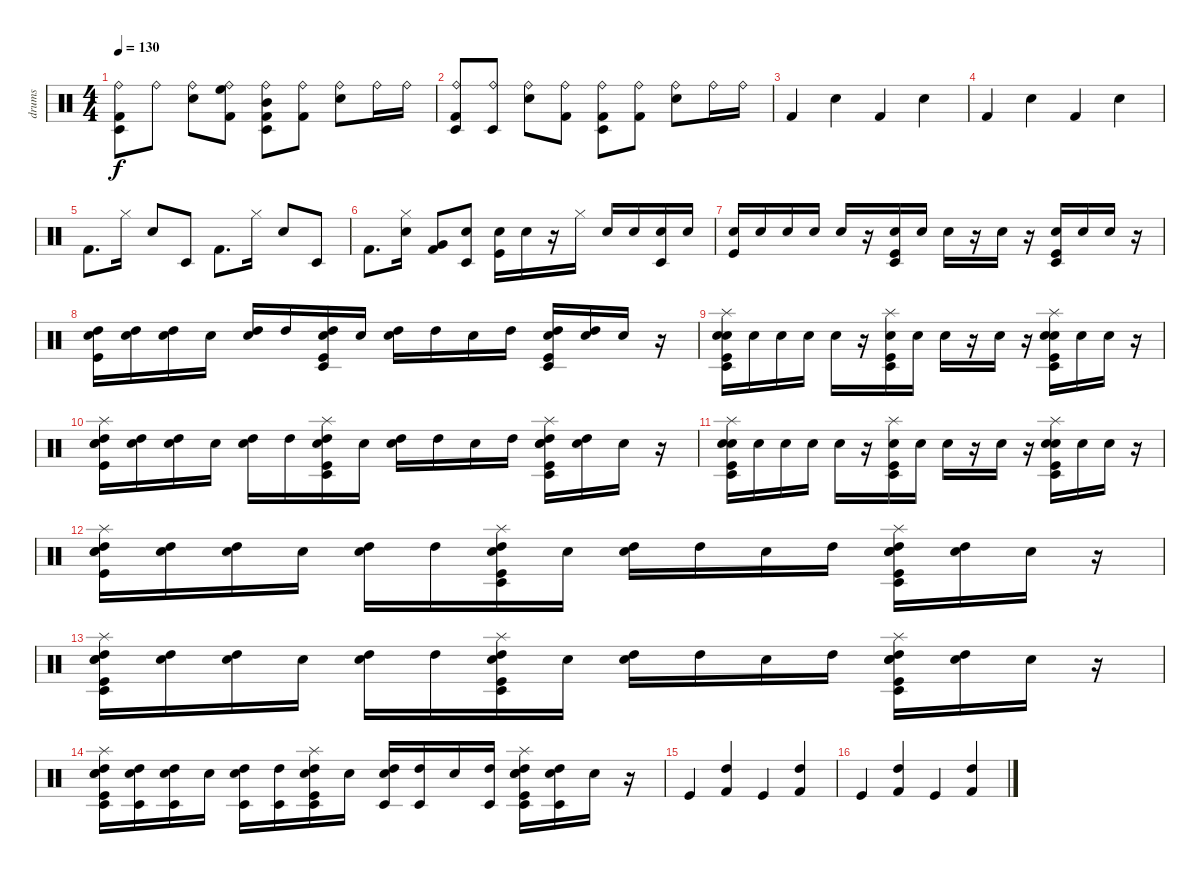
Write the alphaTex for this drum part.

\track ("drums" "drums") {instrument percussion}
\staff {score}
\articulation defaults
\ts (4 4)
\tempo 130
\clef neutral
\ks c
("Kick (hit) 2" "Timbale low (hit)" "Ride (bell)").8{dy f} "Ride (bell)".8 ("Electric Snare (hit)" "Ride (bell)").8 ("Ride (bell)" "High Floor Tom (hit)" "Kick (hit) 2").8 ("Ride (bell)" "Timbale low (hit)" "Mid Tom (hit)" "Kick (hit) 2").8 ("Kick (hit) 2" "Ride (bell)").8 ("Ride (bell)" "Electric Snare (hit)").8 "Ride (bell)".16 "Ride (bell)".16 |
("Kick (hit) 2" "Timbale low (hit)" "Ride (bell)").8 ("Timbale low (hit)" "Ride (bell)").8 ("Electric Snare (hit)" "Ride (bell)").8 ("Kick (hit) 2" "Ride (bell)").8 ("Kick (hit) 2" "Ride (bell)" "Timbale low (hit)").8 ("Kick (hit) 2" "Ride (bell)").8 ("Electric Snare (hit)" "Ride (bell)").8 "Ride (bell)".16 "Ride (bell)".16 |
"Kick (hit) 2".4 "Snare (hit) 2".4 "Kick (hit) 2".4 "Snare (hit) 2".4 |
"Kick (hit) 2".4 "Snare (hit) 2".4 "Kick (hit) 2".4 "Snare (hit) 2".4 |
"Kick (hit) 2".8{d} "Hi-Hat (closed)".16 "Snare (hit) 2".8 "Timbale low (hit)".8 "Kick (hit) 2".8{d} "Hi-Hat (closed)".16 "Snare (hit) 2".8 "Timbale low (hit)".8 |
"Kick (hit) 2".8{d} ("Hi-Hat (closed)" "Electric Snare (hit)").16 ("Very Low Tom (hit)" "Kick (hit) 2").8 ("Timbale low (hit)" "Electric Snare (hit)").8 ("Electric Snare (hit)" "Kick (hit)").16 "Electric Snare (hit)".16 r.16 "Hi-Hat (closed)".16 "Electric Snare (hit)".16 "Electric Snare (hit)".16 ("Timbale low (hit)" "Electric Snare (hit)").16 "Electric Snare (hit)".16 |
("Snare (hit) 2" "Kick (hit)").16 "Snare (hit) 2".16 "Snare (hit) 2".16 "Snare (hit) 2".16 "Snare (hit) 2".16 r.16 ("Snare (hit) 2" "Kick (hit)" "Timbale low (hit)").16 "Snare (hit) 2".16 "Snare (hit) 2".16 r.16 "Snare (hit) 2".16 r.16 ("Timbale low (hit)" "Kick (hit)" "Snare (hit) 2").16 "Snare (hit) 2".16 "Snare (hit) 2".16 r.16 |
("Kick (hit)" "Snare (hit) 2" "High Tom (hit)").16 ("High Tom (hit)" "Snare (hit) 2").16 ("High Tom (hit)" "Snare (hit) 2").16 "Snare (hit) 2".16 ("High Tom (hit)" "Snare (hit) 2").16 "High Tom (hit)".16 ("High Tom (hit)" "Timbale low (hit)" "Kick (hit)" "Snare (hit) 2").16 "Snare (hit) 2".16 ("High Tom (hit)" "Snare (hit) 2").16 "High Tom (hit)".16 "Snare (hit) 2".16 "High Tom (hit)".16 ("Timbale low (hit)" "High Tom (hit)" "Snare (hit) 2" "Kick (hit)").16 ("Snare (hit) 2" "High Tom (hit)").16 "Snare (hit) 2".16 r.16 |
("Timbale low (hit)" "Electric Snare (hit)" "Splash (hit)" "Snare (hit) 2" "Kick (hit)").16 "Snare (hit) 2".16 "Snare (hit) 2".16 "Snare (hit) 2".16 "Snare (hit) 2".16 r.16 ("Snare (hit) 2" "Splash (hit)" "Timbale low (hit)" "Kick (hit)").16 "Snare (hit) 2".16 "Snare (hit) 2".16 r.16 "Snare (hit) 2".16 r.16 ("Electric Snare (hit)" "Splash (hit)" "Timbale low (hit)" "Kick (hit)" "Snare (hit) 2").16 "Snare (hit) 2".16 "Snare (hit) 2".16 r.16 |
("Snare (hit) 2" "Electric Snare (hit)" "Splash (hit)" "Kick (hit)" "High Tom (hit)").16 ("Snare (hit) 2" "High Tom (hit)").16 ("High Tom (hit)" "Snare (hit) 2").16 "Snare (hit) 2".16 ("High Tom (hit)" "Snare (hit) 2").16 "High Tom (hit)".16 ("Splash (hit)" "Timbale low (hit)" "High Tom (hit)" "Kick (hit)" "Snare (hit) 2").16 "Snare (hit) 2".16 ("Snare (hit) 2" "High Tom (hit)").16 "High Tom (hit)".16 "Snare (hit) 2".16 "High Tom (hit)".16 ("Timbale low (hit)" "Electric Snare (hit)" "Splash (hit)" "Kick (hit)" "High Tom (hit)" "Snare (hit) 2").16 ("High Tom (hit)" "Snare (hit) 2").16 "Snare (hit) 2".16 r.16 |
("Splash (hit)" "Timbale low (hit)" "Snare (hit) 2" "Electric Snare (hit)" "Kick (hit)").16 "Snare (hit) 2".16 "Snare (hit) 2".16 "Snare (hit) 2".16 "Snare (hit) 2".16 r.16 ("Splash (hit)" "Snare (hit) 2" "Kick (hit)" "Timbale low (hit)").16 "Snare (hit) 2".16 "Snare (hit) 2".16 r.16 "Snare (hit) 2".16 r.16 ("Electric Snare (hit)" "Splash (hit)" "Snare (hit) 2" "Kick (hit)" "Timbale low (hit)").16 "Snare (hit) 2".16 "Snare (hit) 2".16 r.16 |
("Electric Snare (hit)" "High Tom (hit)" "Snare (hit) 2" "Kick (hit)" "Splash (hit)").16 ("Snare (hit) 2" "High Tom (hit)").16 ("High Tom (hit)" "Snare (hit) 2").16 "Snare (hit) 2".16 ("Snare (hit) 2" "High Tom (hit)").16 "High Tom (hit)".16 ("Splash (hit)" "Kick (hit)" "Timbale low (hit)" "High Tom (hit)" "Snare (hit) 2").16 "Snare (hit) 2".16 ("Snare (hit) 2" "High Tom (hit)").16 "High Tom (hit)".16 "Snare (hit) 2".16 "High Tom (hit)".16 ("Electric Snare (hit)" "Splash (hit)" "High Tom (hit)" "Timbale low (hit)" "Kick (hit)" "Snare (hit) 2").16 ("High Tom (hit)" "Snare (hit) 2").16 "Snare (hit) 2".16 r.16 |
("High Tom (hit)" "Kick (hit)" "Electric Snare (hit)" "Splash (hit)" "Timbale low (hit)" "Snare (hit) 2").16 ("Snare (hit) 2" "High Tom (hit)").16 ("Snare (hit) 2" "High Tom (hit)").16 "Snare (hit) 2".16 ("High Tom (hit)" "Snare (hit) 2").16 "High Tom (hit)".16 ("Timbale low (hit)" "Kick (hit)" "Snare (hit) 2" "Splash (hit)" "High Tom (hit)").16 "Snare (hit) 2".16 ("High Tom (hit)" "Snare (hit) 2").16 "High Tom (hit)".16 "Snare (hit) 2".16 "High Tom (hit)".16 ("Splash (hit)" "Snare (hit) 2" "High Tom (hit)" "Electric Snare (hit)" "Kick (hit)" "Timbale low (hit)").16 ("Snare (hit) 2" "High Tom (hit)").16 "Snare (hit) 2".16 r.16 |
("Kick (hit)" "Splash (hit)" "Snare (hit) 2" "High Tom (hit)" "Electric Snare (hit)" "Timbale low (hit)").16 ("Snare (hit) 2" "Timbale low (hit)" "High Tom (hit)").16 ("Timbale low (hit)" "High Tom (hit)" "Snare (hit) 2").16 "Snare (hit) 2".16 ("Snare (hit) 2" "Timbale low (hit)" "High Tom (hit)").16 ("High Tom (hit)" "Timbale low (hit)").16 ("High Tom (hit)" "Splash (hit)" "Timbale low (hit)" "Kick (hit)" "Snare (hit) 2").16 "Snare (hit) 2".16 ("Snare (hit) 2" "High Tom (hit)" "Timbale low (hit)").16 ("High Tom (hit)" "Timbale low (hit)").16 "Snare (hit) 2".16 ("High Tom (hit)" "Timbale low (hit)").16 ("Snare (hit) 2" "Kick (hit)" "Timbale low (hit)" "High Tom (hit)" "Electric Snare (hit)" "Splash (hit)").16 ("Timbale low (hit)" "Snare (hit) 2" "High Tom (hit)").16 "Snare (hit) 2".16 r.16 |
"Kick (hit)".4 ("Kick (hit) 2" "High Tom (hit)").4 "Kick (hit)".4 ("Kick (hit) 2" "High Tom (hit)").4 |
"Kick (hit)".4 ("High Tom (hit)" "Kick (hit) 2").4 "Kick (hit)".4 ("Kick (hit) 2" "High Tom (hit)").4
